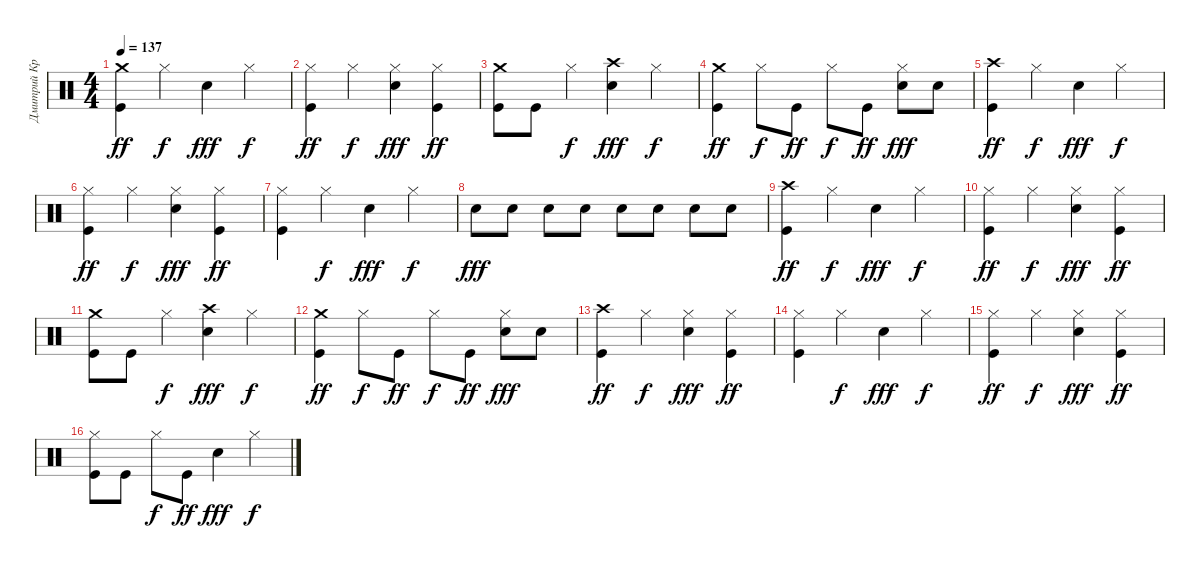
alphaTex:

\track ("Дмитрий Кревенков" "Дмитрий Кр") {instrument percussion}
\staff {score}
\articulation defaults
\ts (4 4)
\tempo 137
\clef neutral
\ks c
("Crash medium (hit)" "Kick (hit)").4{dy ff} "Hi-Hat (closed)".4{dy f} "Snare (hit) 2".4{dy fff} "Hi-Hat (closed)".4{dy f} |
("Kick (hit)" "Hi-Hat (closed)").4{dy ff} "Hi-Hat (closed)".4{dy f} ("Snare (hit) 2" "Hi-Hat (closed)").4{dy fff} ("Kick (hit)" "Hi-Hat (closed)").4{dy ff} |
("Kick (hit)" "Crash medium (hit)").8 "Kick (hit)".8 "Hi-Hat (closed)".4{dy f} ("Snare (hit) 2" "Crash high (hit)").4{dy fff} "Hi-Hat (closed)".4{dy f} |
("Crash medium (hit)" "Kick (hit)").4{dy ff} "Hi-Hat (closed)".8{dy f} "Kick (hit)".8{dy ff} "Hi-Hat (closed)".8{dy f} "Kick (hit)".8{dy ff} ("Snare (hit) 2" "Hi-Hat (closed)").8{dy fff} "Snare (hit) 2".8 |
("Kick (hit)" "Crash high (hit)").4{dy ff} "Hi-Hat (closed)".4{dy f} "Snare (hit) 2".4{dy fff} "Hi-Hat (closed)".4{dy f} |
("Kick (hit)" "Hi-Hat (closed)").4{dy ff} "Hi-Hat (closed)".4{dy f} ("Snare (hit) 2" "Hi-Hat (closed)").4{dy fff} ("Kick (hit)" "Hi-Hat (closed)").4{dy ff} |
("Kick (hit)" "Hi-Hat (closed)").4 "Hi-Hat (closed)".4{dy f} "Snare (hit) 2".4{dy fff} "Hi-Hat (closed)".4{dy f} |
"Snare (hit) 2".8{dy fff} "Snare (hit) 2".8 "Snare (hit) 2".8 "Snare (hit) 2".8 "Snare (hit) 2".8 "Snare (hit) 2".8 "Snare (hit) 2".8 "Snare (hit) 2".8 |
("Kick (hit)" "Crash high (hit)").4{dy ff} "Hi-Hat (closed)".4{dy f} "Snare (hit) 2".4{dy fff} "Hi-Hat (closed)".4{dy f} |
("Kick (hit)" "Hi-Hat (closed)").4{dy ff} "Hi-Hat (closed)".4{dy f} ("Snare (hit) 2" "Hi-Hat (closed)").4{dy fff} ("Kick (hit)" "Hi-Hat (closed)").4{dy ff} |
("Kick (hit)" "Crash medium (hit)").8 "Kick (hit)".8 "Hi-Hat (closed)".4{dy f} ("Crash high (hit)" "Snare (hit) 2").4{dy fff} "Hi-Hat (closed)".4{dy f} |
("Crash medium (hit)" "Kick (hit)").4{dy ff} "Hi-Hat (closed)".8{dy f} "Kick (hit)".8{dy ff} "Hi-Hat (closed)".8{dy f} "Kick (hit)".8{dy ff} ("Snare (hit) 2" "Hi-Hat (closed)").8{dy fff} "Snare (hit) 2".8 |
("Crash high (hit)" "Kick (hit)").4{dy ff} "Hi-Hat (closed)".4{dy f} ("Snare (hit) 2" "Hi-Hat (closed)").4{dy fff} ("Kick (hit)" "Hi-Hat (closed)").4{dy ff} |
("Kick (hit)" "Hi-Hat (closed)").4 "Hi-Hat (closed)".4{dy f} "Snare (hit) 2".4{dy fff} "Hi-Hat (closed)".4{dy f} |
("Hi-Hat (closed)" "Kick (hit)").4{dy ff} "Hi-Hat (closed)".4{dy f} ("Snare (hit) 2" "Hi-Hat (closed)").4{dy fff} ("Kick (hit)" "Hi-Hat (closed)").4{dy ff} |
("Kick (hit)" "Hi-Hat (closed)").8 "Kick (hit)".8 "Hi-Hat (closed)".8{dy f} "Kick (hit)".8{dy ff} "Snare (hit) 2".4{dy fff} "Hi-Hat (closed)".4{dy f}
